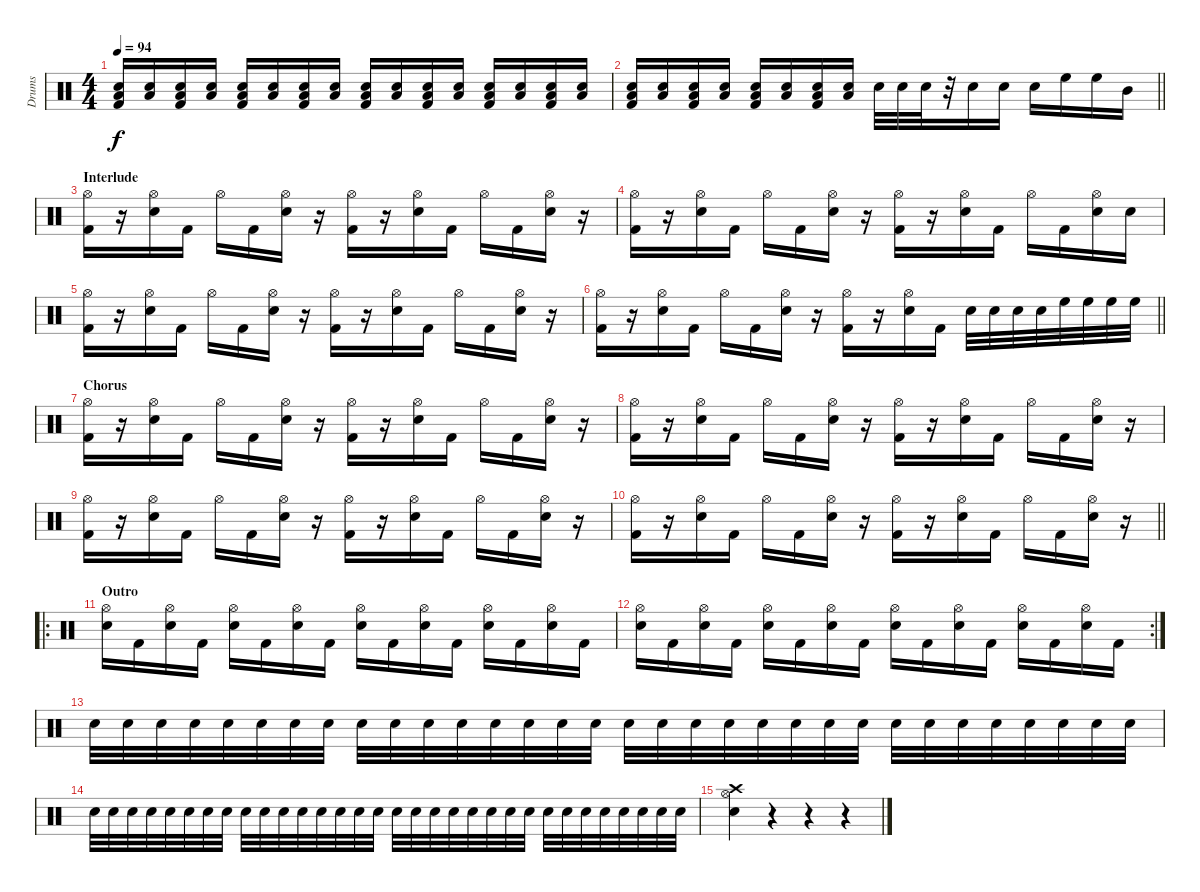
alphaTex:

\track ("Drums" "Drums") {instrument percussion}
\staff {score}
\articulation defaults
\ts (4 4)
\tempo 94
\clef neutral
\ks c
("Snare (hit) 2" "Low Tom (hit)" "Kick (hit) 2").16{dy f} ("Snare (hit) 2" "Low Tom (hit)").16 ("Snare (hit) 2" "Low Tom (hit)" "Kick (hit) 2").16 ("Snare (hit) 2" "Low Tom (hit)").16 ("Snare (hit) 2" "Low Tom (hit)" "Kick (hit) 2").16 ("Snare (hit) 2" "Low Tom (hit)").16 ("Snare (hit) 2" "Low Tom (hit)" "Kick (hit) 2").16 ("Snare (hit) 2" "Low Tom (hit)").16 ("Snare (hit) 2" "Low Tom (hit)" "Kick (hit) 2").16 ("Snare (hit) 2" "Low Tom (hit)").16 ("Snare (hit) 2" "Low Tom (hit)" "Kick (hit) 2").16 ("Snare (hit) 2" "Low Tom (hit)").16 ("Snare (hit) 2" "Low Tom (hit)" "Kick (hit) 2").16 ("Snare (hit) 2" "Low Tom (hit)").16 ("Snare (hit) 2" "Low Tom (hit)" "Kick (hit) 2").16 ("Snare (hit) 2" "Low Tom (hit)").16 |
\barLineRight lightlight
("Snare (hit) 2" "Low Tom (hit)" "Kick (hit) 2").16 ("Snare (hit) 2" "Low Tom (hit)").16 ("Snare (hit) 2" "Low Tom (hit)" "Kick (hit) 2").16 ("Snare (hit) 2" "Low Tom (hit)").16 ("Snare (hit) 2" "Low Tom (hit)" "Kick (hit) 2").16 ("Snare (hit) 2" "Low Tom (hit)").16 ("Snare (hit) 2" "Low Tom (hit)" "Kick (hit) 2").16 ("Snare (hit) 2" "Low Tom (hit)").16 "Snare (hit) 2".32 "Snare (hit) 2".32 "Snare (hit) 2".32 r.32 "Snare (hit) 2".16 "Snare (hit) 2".16 "Snare (hit) 2".16 "High Floor Tom (hit)".16 "High Floor Tom (hit)".16 "Mid Tom (hit)".16 |
\section ("" "Interlude")
("Hi-Hat (open)" "Kick (hit) 2").16 r.16 ("Hi-Hat (open)" "Snare (hit) 2").16 "Kick (hit) 2".16 "Hi-Hat (open)".16 "Kick (hit) 2".16 ("Hi-Hat (open)" "Snare (hit) 2").16 r.16 ("Hi-Hat (open)" "Kick (hit) 2").16 r.16 ("Hi-Hat (open)" "Snare (hit) 2").16 "Kick (hit) 2".16 "Hi-Hat (open)".16 "Kick (hit) 2".16 ("Hi-Hat (open)" "Snare (hit) 2").16 r.16 |
("Hi-Hat (open)" "Kick (hit) 2").16 r.16 ("Hi-Hat (open)" "Snare (hit) 2").16 "Kick (hit) 2".16 "Hi-Hat (open)".16 "Kick (hit) 2".16 ("Hi-Hat (open)" "Snare (hit) 2").16 r.16 ("Hi-Hat (open)" "Kick (hit) 2").16 r.16 ("Hi-Hat (open)" "Snare (hit) 2").16 "Kick (hit) 2".16 "Hi-Hat (open)".16 "Kick (hit) 2".16 ("Hi-Hat (open)" "Snare (hit) 2").16 "Snare (hit) 2".16 |
("Hi-Hat (open)" "Kick (hit) 2").16 r.16 ("Hi-Hat (open)" "Snare (hit) 2").16 "Kick (hit) 2".16 "Hi-Hat (open)".16 "Kick (hit) 2".16 ("Hi-Hat (open)" "Snare (hit) 2").16 r.16 ("Hi-Hat (open)" "Kick (hit) 2").16 r.16 ("Hi-Hat (open)" "Snare (hit) 2").16 "Kick (hit) 2".16 "Hi-Hat (open)".16 "Kick (hit) 2".16 ("Hi-Hat (open)" "Snare (hit) 2").16 r.16 |
\barLineRight lightlight
("Hi-Hat (open)" "Kick (hit) 2").16 r.16 ("Hi-Hat (open)" "Snare (hit) 2").16 "Kick (hit) 2".16 "Hi-Hat (open)".16 "Kick (hit) 2".16 ("Hi-Hat (open)" "Snare (hit) 2").16 r.16 ("Hi-Hat (open)" "Kick (hit) 2").16 r.16 ("Hi-Hat (open)" "Snare (hit) 2").16 "Kick (hit) 2".16 "Snare (hit) 2".32 "Snare (hit) 2".32 "Snare (hit) 2".32 "Snare (hit) 2".32 "High Floor Tom (hit)".32 "High Floor Tom (hit)".32 "High Floor Tom (hit)".32 "High Floor Tom (hit)".32 |
\section ("" "Chorus")
("Hi-Hat (open)" "Kick (hit) 2").16 r.16 ("Hi-Hat (open)" "Snare (hit) 2").16 "Kick (hit) 2".16 "Hi-Hat (open)".16 "Kick (hit) 2".16 ("Hi-Hat (open)" "Snare (hit) 2").16 r.16 ("Hi-Hat (open)" "Kick (hit) 2").16 r.16 ("Hi-Hat (open)" "Snare (hit) 2").16 "Kick (hit) 2".16 "Hi-Hat (open)".16 "Kick (hit) 2".16 ("Hi-Hat (open)" "Snare (hit) 2").16 r.16 |
("Hi-Hat (open)" "Kick (hit) 2").16 r.16 ("Hi-Hat (open)" "Snare (hit) 2").16 "Kick (hit) 2".16 "Hi-Hat (open)".16 "Kick (hit) 2".16 ("Hi-Hat (open)" "Snare (hit) 2").16 r.16 ("Hi-Hat (open)" "Kick (hit) 2").16 r.16 ("Hi-Hat (open)" "Snare (hit) 2").16 "Kick (hit) 2".16 "Hi-Hat (open)".16 "Kick (hit) 2".16 ("Hi-Hat (open)" "Snare (hit) 2").16 r.16 |
("Hi-Hat (open)" "Kick (hit) 2").16 r.16 ("Hi-Hat (open)" "Snare (hit) 2").16 "Kick (hit) 2".16 "Hi-Hat (open)".16 "Kick (hit) 2".16 ("Hi-Hat (open)" "Snare (hit) 2").16 r.16 ("Hi-Hat (open)" "Kick (hit) 2").16 r.16 ("Hi-Hat (open)" "Snare (hit) 2").16 "Kick (hit) 2".16 "Hi-Hat (open)".16 "Kick (hit) 2".16 ("Hi-Hat (open)" "Snare (hit) 2").16 r.16 |
\barLineRight lightlight
("Hi-Hat (open)" "Kick (hit) 2").16 r.16 ("Hi-Hat (open)" "Snare (hit) 2").16 "Kick (hit) 2".16 "Hi-Hat (open)".16 "Kick (hit) 2".16 ("Hi-Hat (open)" "Snare (hit) 2").16 r.16 ("Hi-Hat (open)" "Kick (hit) 2").16 r.16 ("Hi-Hat (open)" "Snare (hit) 2").16 "Kick (hit) 2".16 "Hi-Hat (open)".16 "Kick (hit) 2".16 ("Hi-Hat (open)" "Snare (hit) 2").16 r.16 |
\ro
\section ("" "Outro")
("Hi-Hat (open)" "Snare (hit) 2").16 "Kick (hit) 2".16 ("Hi-Hat (open)" "Snare (hit) 2").16 "Kick (hit) 2".16 ("Hi-Hat (open)" "Snare (hit) 2").16 "Kick (hit) 2".16 ("Hi-Hat (open)" "Snare (hit) 2").16 "Kick (hit) 2".16 ("Hi-Hat (open)" "Snare (hit) 2").16 "Kick (hit) 2".16 ("Hi-Hat (open)" "Snare (hit) 2").16 "Kick (hit) 2".16 ("Hi-Hat (open)" "Snare (hit) 2").16 "Kick (hit) 2".16 ("Hi-Hat (open)" "Snare (hit) 2").16 "Kick (hit) 2".16 |
\rc 2
("Hi-Hat (open)" "Snare (hit) 2").16 "Kick (hit) 2".16 ("Hi-Hat (open)" "Snare (hit) 2").16 "Kick (hit) 2".16 ("Hi-Hat (open)" "Snare (hit) 2").16 "Kick (hit) 2".16 ("Hi-Hat (open)" "Snare (hit) 2").16 "Kick (hit) 2".16 ("Hi-Hat (open)" "Snare (hit) 2").16 "Kick (hit) 2".16 ("Hi-Hat (open)" "Snare (hit) 2").16 "Kick (hit) 2".16 ("Hi-Hat (open)" "Snare (hit) 2").16 "Kick (hit) 2".16 ("Hi-Hat (open)" "Snare (hit) 2").16 "Kick (hit) 2".16 |
"Snare (hit) 2".32 "Snare (hit) 2".32 "Snare (hit) 2".32 "Snare (hit) 2".32 "Snare (hit) 2".32 "Snare (hit) 2".32 "Snare (hit) 2".32 "Snare (hit) 2".32 "Snare (hit) 2".32 "Snare (hit) 2".32 "Snare (hit) 2".32 "Snare (hit) 2".32 "Snare (hit) 2".32 "Snare (hit) 2".32 "Snare (hit) 2".32 "Snare (hit) 2".32 "Snare (hit) 2".32 "Snare (hit) 2".32 "Snare (hit) 2".32 "Snare (hit) 2".32 "Snare (hit) 2".32 "Snare (hit) 2".32 "Snare (hit) 2".32 "Snare (hit) 2".32 "Snare (hit) 2".32 "Snare (hit) 2".32 "Snare (hit) 2".32 "Snare (hit) 2".32 "Snare (hit) 2".32 "Snare (hit) 2".32 "Snare (hit) 2".32 "Snare (hit) 2".32 |
"Snare (hit) 2".32 "Snare (hit) 2".32 "Snare (hit) 2".32 "Snare (hit) 2".32 "Snare (hit) 2".32 "Snare (hit) 2".32 "Snare (hit) 2".32 "Snare (hit) 2".32 "Snare (hit) 2".32 "Snare (hit) 2".32 "Snare (hit) 2".32 "Snare (hit) 2".32 "Snare (hit) 2".32 "Snare (hit) 2".32 "Snare (hit) 2".32 "Snare (hit) 2".32 "Snare (hit) 2".32 "Snare (hit) 2".32 "Snare (hit) 2".32 "Snare (hit) 2".32 "Snare (hit) 2".32 "Snare (hit) 2".32 "Snare (hit) 2".32 "Snare (hit) 2".32 "Snare (hit) 2".32 "Snare (hit) 2".32 "Snare (hit) 2".32 "Snare (hit) 2".32 "Snare (hit) 2".32 "Snare (hit) 2".32 "Snare (hit) 2".32 "Snare (hit) 2".32 |
("Snare (hit) 2" "Hi-Hat (open)" "Crash high (hit)").4 r.4 r.4 r.4
